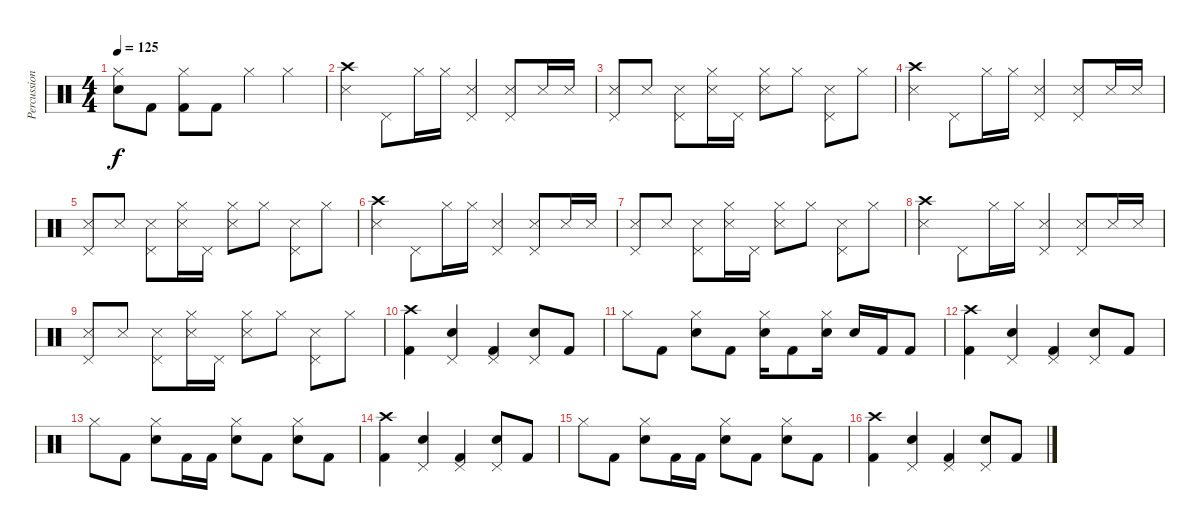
\track ("Percussioni" "Percussion") {instrument percussion}
\staff {score}
\articulation defaults
\ts (4 4)
\tempo 125
\clef neutral
\ks c
("Hi-Hat (closed)" "Snare (hit) 2").8{dy f} "Kick (hit) 2".8 ("Hi-Hat (closed)" "Kick (hit) 2").8 "Kick (hit) 2".8 "Hi-Hat (closed)".4 "Hi-Hat (closed)".4 |
("Crash high (hit)" "Snare (side stick) 3").4{volume 5} "Pedal Hi-Hat (hit)".8 "Hi-Hat (closed)".16 "Hi-Hat (closed)".16 ("Pedal Hi-Hat (hit)" "Snare (side stick) 3").4 ("Pedal Hi-Hat (hit)" "Snare (side stick) 3").8 "Snare (side stick) 3".16 "Snare (side stick) 3".16 |
("Pedal Hi-Hat (hit)" "Snare (side stick) 3").8 "Snare (side stick) 3".8 ("Pedal Hi-Hat (hit)" "Snare (side stick) 3").8 ("Hi-Hat (closed)" "Snare (side stick) 3").16 "Pedal Hi-Hat (hit)".16 ("Hi-Hat (closed)" "Snare (side stick) 3").8 "Hi-Hat (closed)".8 ("Pedal Hi-Hat (hit)" "Snare (side stick) 3").8 "Hi-Hat (closed)".8 |
("Crash high (hit)" "Snare (side stick) 3").4{volume 5} "Pedal Hi-Hat (hit)".8 "Hi-Hat (closed)".16 "Hi-Hat (closed)".16 ("Pedal Hi-Hat (hit)" "Snare (side stick) 3").4 ("Pedal Hi-Hat (hit)" "Snare (side stick) 3").8 "Snare (side stick) 3".16 "Snare (side stick) 3".16 |
("Pedal Hi-Hat (hit)" "Snare (side stick) 3").8 "Snare (side stick) 3".8 ("Pedal Hi-Hat (hit)" "Snare (side stick) 3").8 ("Hi-Hat (closed)" "Snare (side stick) 3").16 "Pedal Hi-Hat (hit)".16 ("Hi-Hat (closed)" "Snare (side stick) 3").8 "Hi-Hat (closed)".8 ("Pedal Hi-Hat (hit)" "Snare (side stick) 3").8 "Hi-Hat (closed)".8 |
("Crash high (hit)" "Snare (side stick) 3").4{volume 5} "Pedal Hi-Hat (hit)".8 "Hi-Hat (closed)".16 "Hi-Hat (closed)".16 ("Pedal Hi-Hat (hit)" "Snare (side stick) 3").4 ("Pedal Hi-Hat (hit)" "Snare (side stick) 3").8 "Snare (side stick) 3".16 "Snare (side stick) 3".16 |
("Pedal Hi-Hat (hit)" "Snare (side stick) 3").8 "Snare (side stick) 3".8 ("Pedal Hi-Hat (hit)" "Snare (side stick) 3").8 ("Hi-Hat (closed)" "Snare (side stick) 3").16 "Pedal Hi-Hat (hit)".16 ("Hi-Hat (closed)" "Snare (side stick) 3").8 "Hi-Hat (closed)".8 ("Pedal Hi-Hat (hit)" "Snare (side stick) 3").8 "Hi-Hat (closed)".8 |
("Crash high (hit)" "Snare (side stick) 3").4{volume 5} "Pedal Hi-Hat (hit)".8 "Hi-Hat (closed)".16 "Hi-Hat (closed)".16 ("Pedal Hi-Hat (hit)" "Snare (side stick) 3").4 ("Pedal Hi-Hat (hit)" "Snare (side stick) 3").8 "Snare (side stick) 3".16 "Snare (side stick) 3".16 |
("Pedal Hi-Hat (hit)" "Snare (side stick) 3").8 "Snare (side stick) 3".8 ("Pedal Hi-Hat (hit)" "Snare (side stick) 3").8 ("Hi-Hat (closed)" "Snare (side stick) 3").16 "Pedal Hi-Hat (hit)".16 ("Hi-Hat (closed)" "Snare (side stick) 3").8 "Hi-Hat (closed)".8 ("Pedal Hi-Hat (hit)" "Snare (side stick) 3").8 "Hi-Hat (closed)".8 |
("Crash high (hit)" "Kick (hit) 2").4 ("Pedal Hi-Hat (hit)" "Snare (hit) 2").4 ("Pedal Hi-Hat (hit)" "Kick (hit) 2").4 ("Pedal Hi-Hat (hit)" "Snare (hit) 2").8 "Kick (hit) 2".8 |
"Hi-Hat (closed)".8 "Kick (hit) 2".8 ("Hi-Hat (closed)" "Snare (hit) 2").8 "Kick (hit) 2".8 ("Hi-Hat (closed)" "Snare (hit) 2").16 "Kick (hit) 2".8 ("Hi-Hat (closed)" "Snare (hit) 2").16 "Snare (hit) 2".16 "Kick (hit) 2".16 "Kick (hit) 2".8 |
("Crash high (hit)" "Kick (hit) 2").4 ("Pedal Hi-Hat (hit)" "Snare (hit) 2").4 ("Pedal Hi-Hat (hit)" "Kick (hit) 2").4 ("Pedal Hi-Hat (hit)" "Snare (hit) 2").8 "Kick (hit) 2".8 |
"Hi-Hat (closed)".8 "Kick (hit) 2".8 ("Hi-Hat (closed)" "Snare (hit) 2").8 "Kick (hit) 2".16 "Kick (hit) 2".16 ("Hi-Hat (closed)" "Snare (hit) 2").8 "Kick (hit) 2".8 ("Hi-Hat (closed)" "Snare (hit) 2").8 "Kick (hit) 2".8 |
("Crash high (hit)" "Kick (hit) 2").4 ("Pedal Hi-Hat (hit)" "Snare (hit) 2").4 ("Pedal Hi-Hat (hit)" "Kick (hit) 2").4 ("Pedal Hi-Hat (hit)" "Snare (hit) 2").8 "Kick (hit) 2".8 |
"Hi-Hat (closed)".8 "Kick (hit) 2".8 ("Hi-Hat (closed)" "Snare (hit) 2").8 "Kick (hit) 2".16 "Kick (hit) 2".16 ("Hi-Hat (closed)" "Snare (hit) 2").8 "Kick (hit) 2".8 ("Hi-Hat (closed)" "Snare (hit) 2").8 "Kick (hit) 2".8 |
("Crash high (hit)" "Kick (hit) 2").4 ("Pedal Hi-Hat (hit)" "Snare (hit) 2").4 ("Pedal Hi-Hat (hit)" "Kick (hit) 2").4 ("Pedal Hi-Hat (hit)" "Snare (hit) 2").8 "Kick (hit) 2".8
